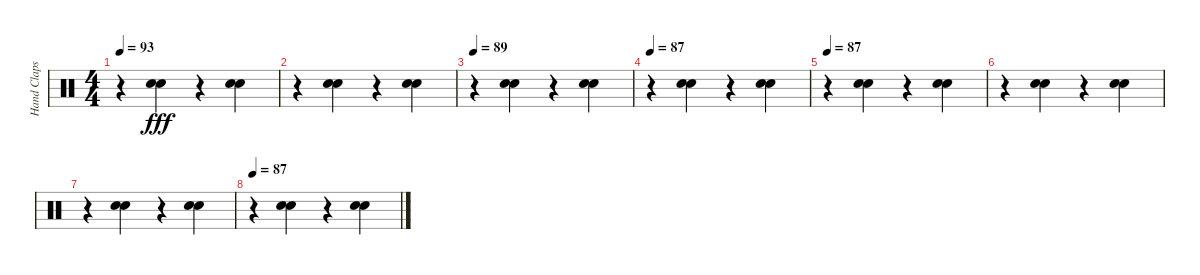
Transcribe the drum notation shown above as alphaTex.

\track ("Hand Claps" "Hand Claps") {instrument percussion}
\staff {score}
\articulation defaults
\ts (4 4)
\tempo 93
\clef neutral
\ks c
r.4{dy fff} ("Hand Clap (hit)" "Hand Clap (hit)").4 r.4 ("Hand Clap (hit)" "Hand Clap (hit)").4 |
r.4 ("Hand Clap (hit)" "Hand Clap (hit)").4 r.4 ("Hand Clap (hit)" "Hand Clap (hit)").4 |
\tempo 89
r.4 ("Hand Clap (hit)" "Hand Clap (hit)").4 r.4 ("Hand Clap (hit)" "Hand Clap (hit)").4 |
\tempo 87
r.4 ("Hand Clap (hit)" "Hand Clap (hit)").4 r.4 ("Hand Clap (hit)" "Hand Clap (hit)").4 |
\tempo 87
r.4 ("Hand Clap (hit)" "Hand Clap (hit)").4 r.4 ("Hand Clap (hit)" "Hand Clap (hit)").4 |
r.4 ("Hand Clap (hit)" "Hand Clap (hit)").4 r.4 ("Hand Clap (hit)" "Hand Clap (hit)").4 |
r.4 ("Hand Clap (hit)" "Hand Clap (hit)").4 r.4 ("Hand Clap (hit)" "Hand Clap (hit)").4 |
\tempo 87
r.4 ("Hand Clap (hit)" "Hand Clap (hit)").4 r.4 ("Hand Clap (hit)" "Hand Clap (hit)").4
